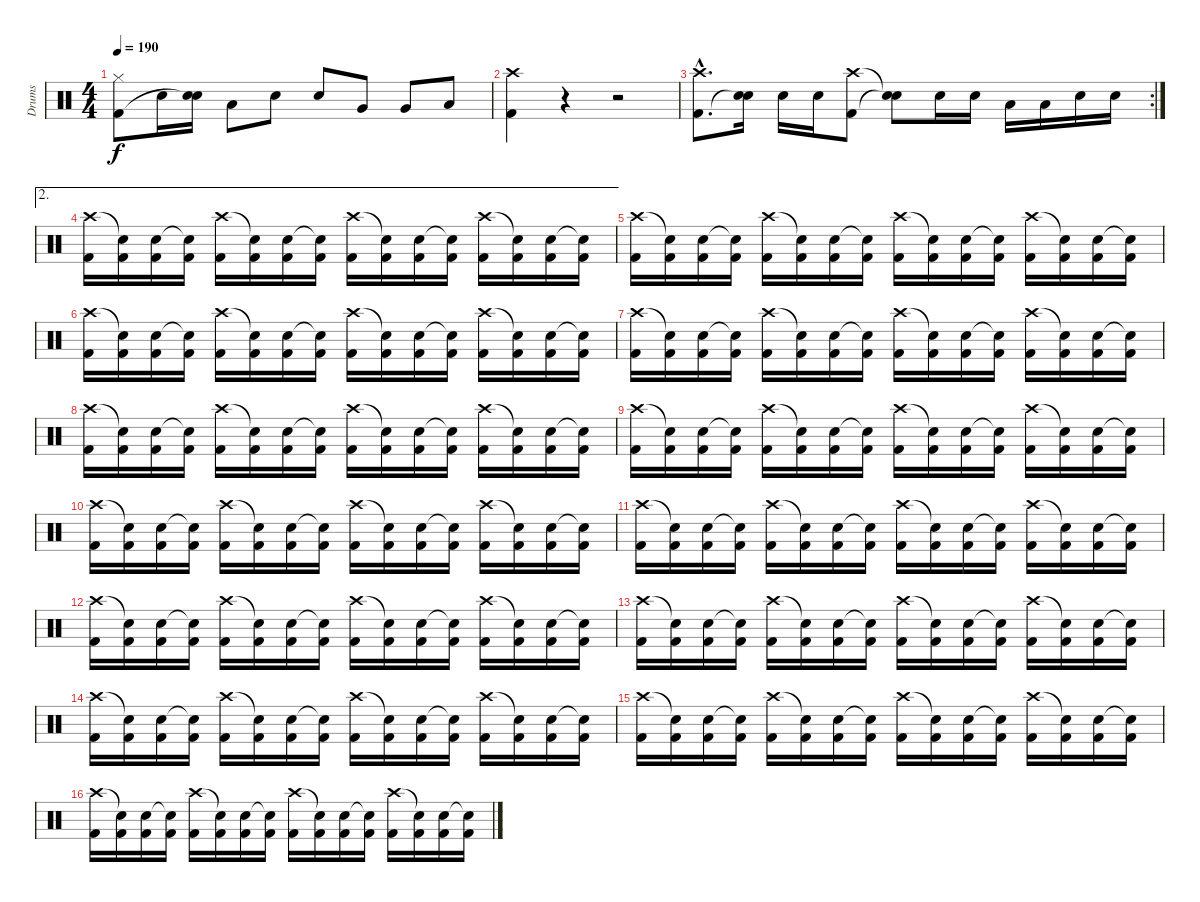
\track ("Drums" "Drums") {instrument percussion}
\staff {score}
\articulation defaults
\ts (4 4)
\tempo 190
\clef neutral
\ks c
("Hi-Hat (closed)" "Kick (hit) 2").8{dy f} "Snare (hit) 2".16 ("Snare (hit) 2" "Snare (hit)"{t}).16 "Low Tom (hit)".8 "Snare (hit) 2".8 "Snare (hit) 2".8 "Very Low Tom (hit)".8 "Very Low Tom (hit)".8 "Low Floor Tom (hit)".8 |
("Crash high (hit)" "Kick (hit) 2").4 r.4 r.2 |
\rc 2
("Crash high (hit)"{hac} "Kick (hit) 2"{hac}).8{d} ("Snare (hit) 2" "Snare (hit)"{t}).16 "Snare (hit) 2".16 "Snare (hit) 2".16 ("Crash high (hit)" "Kick (hit) 2").8 ("Snare (hit)"{t} "Snare (hit)"{t}).8 "Snare (hit) 2".16 "Snare (hit) 2".16 "Low Tom (hit)".16 "Low Tom (hit)".16 "Snare (hit) 2".16 "Snare (hit) 2".16 |
\ae 2
("Crash high (hit)" "Kick (hit) 2").16 ("Snare (hit)"{t} "Kick (hit) 2").16 ("Snare (hit) 2" "Kick (hit) 2").16 ("Snare (hit)"{t} "Kick (hit) 2").16 ("Crash high (hit)" "Kick (hit) 2").16 ("Snare (hit)"{t} "Kick (hit) 2").16 ("Snare (hit) 2" "Kick (hit) 2").16 ("Snare (hit)"{t} "Kick (hit) 2").16 ("Crash high (hit)" "Kick (hit) 2").16 ("Snare (hit)"{t} "Kick (hit) 2").16 ("Snare (hit) 2" "Kick (hit) 2").16 ("Snare (hit)"{t} "Kick (hit) 2").16 ("Crash high (hit)" "Kick (hit) 2").16 ("Snare (hit)"{t} "Kick (hit) 2").16 ("Snare (hit) 2" "Kick (hit) 2").16 ("Snare (hit)"{t} "Kick (hit) 2").16 |
("Crash high (hit)" "Kick (hit) 2").16 ("Snare (hit)"{t} "Kick (hit) 2").16 ("Snare (hit) 2" "Kick (hit) 2").16 ("Snare (hit)"{t} "Kick (hit) 2").16 ("Crash high (hit)" "Kick (hit) 2").16 ("Snare (hit)"{t} "Kick (hit) 2").16 ("Snare (hit) 2" "Kick (hit) 2").16 ("Snare (hit)"{t} "Kick (hit) 2").16 ("Crash high (hit)" "Kick (hit) 2").16 ("Snare (hit)"{t} "Kick (hit) 2").16 ("Snare (hit) 2" "Kick (hit) 2").16 ("Snare (hit)"{t} "Kick (hit) 2").16 ("Crash high (hit)" "Kick (hit) 2").16 ("Snare (hit)"{t} "Kick (hit) 2").16 ("Snare (hit) 2" "Kick (hit) 2").16 ("Snare (hit)"{t} "Kick (hit) 2").16 |
("Crash high (hit)" "Kick (hit) 2").16 ("Snare (hit)"{t} "Kick (hit) 2").16 ("Snare (hit) 2" "Kick (hit) 2").16 ("Snare (hit)"{t} "Kick (hit) 2").16 ("Crash high (hit)" "Kick (hit) 2").16 ("Snare (hit)"{t} "Kick (hit) 2").16 ("Snare (hit) 2" "Kick (hit) 2").16 ("Snare (hit)"{t} "Kick (hit) 2").16 ("Crash high (hit)" "Kick (hit) 2").16 ("Snare (hit)"{t} "Kick (hit) 2").16 ("Snare (hit) 2" "Kick (hit) 2").16 ("Snare (hit)"{t} "Kick (hit) 2").16 ("Crash high (hit)" "Kick (hit) 2").16 ("Snare (hit)"{t} "Kick (hit) 2").16 ("Snare (hit) 2" "Kick (hit) 2").16 ("Snare (hit)"{t} "Kick (hit) 2").16 |
("Crash high (hit)" "Kick (hit) 2").16 ("Snare (hit)"{t} "Kick (hit) 2").16 ("Snare (hit) 2" "Kick (hit) 2").16 ("Snare (hit)"{t} "Kick (hit) 2").16 ("Crash high (hit)" "Kick (hit) 2").16 ("Snare (hit)"{t} "Kick (hit) 2").16 ("Snare (hit) 2" "Kick (hit) 2").16 ("Snare (hit)"{t} "Kick (hit) 2").16 ("Crash high (hit)" "Kick (hit) 2").16 ("Snare (hit)"{t} "Kick (hit) 2").16 ("Snare (hit) 2" "Kick (hit) 2").16 ("Snare (hit)"{t} "Kick (hit) 2").16 ("Crash high (hit)" "Kick (hit) 2").16 ("Snare (hit)"{t} "Kick (hit) 2").16 ("Snare (hit) 2" "Kick (hit) 2").16 ("Snare (hit)"{t} "Kick (hit) 2").16 |
("Crash high (hit)" "Kick (hit) 2").16 ("Snare (hit)"{t} "Kick (hit) 2").16 ("Snare (hit) 2" "Kick (hit) 2").16 ("Snare (hit)"{t} "Kick (hit) 2").16 ("Crash high (hit)" "Kick (hit) 2").16 ("Snare (hit)"{t} "Kick (hit) 2").16 ("Snare (hit) 2" "Kick (hit) 2").16 ("Snare (hit)"{t} "Kick (hit) 2").16 ("Crash high (hit)" "Kick (hit) 2").16 ("Snare (hit)"{t} "Kick (hit) 2").16 ("Snare (hit) 2" "Kick (hit) 2").16 ("Snare (hit)"{t} "Kick (hit) 2").16 ("Crash high (hit)" "Kick (hit) 2").16 ("Snare (hit)"{t} "Kick (hit) 2").16 ("Snare (hit) 2" "Kick (hit) 2").16 ("Snare (hit)"{t} "Kick (hit) 2").16 |
("Crash high (hit)" "Kick (hit) 2").16 ("Snare (hit)"{t} "Kick (hit) 2").16 ("Snare (hit) 2" "Kick (hit) 2").16 ("Snare (hit)"{t} "Kick (hit) 2").16 ("Crash high (hit)" "Kick (hit) 2").16 ("Snare (hit)"{t} "Kick (hit) 2").16 ("Snare (hit) 2" "Kick (hit) 2").16 ("Snare (hit)"{t} "Kick (hit) 2").16 ("Crash high (hit)" "Kick (hit) 2").16 ("Snare (hit)"{t} "Kick (hit) 2").16 ("Snare (hit) 2" "Kick (hit) 2").16 ("Snare (hit)"{t} "Kick (hit) 2").16 ("Crash high (hit)" "Kick (hit) 2").16 ("Snare (hit)"{t} "Kick (hit) 2").16 ("Snare (hit) 2" "Kick (hit) 2").16 ("Snare (hit)"{t} "Kick (hit) 2").16 |
("Crash high (hit)" "Kick (hit) 2").16 ("Snare (hit)"{t} "Kick (hit) 2").16 ("Snare (hit) 2" "Kick (hit) 2").16 ("Snare (hit)"{t} "Kick (hit) 2").16 ("Crash high (hit)" "Kick (hit) 2").16 ("Snare (hit)"{t} "Kick (hit) 2").16 ("Snare (hit) 2" "Kick (hit) 2").16 ("Snare (hit)"{t} "Kick (hit) 2").16 ("Crash high (hit)" "Kick (hit) 2").16 ("Snare (hit)"{t} "Kick (hit) 2").16 ("Snare (hit) 2" "Kick (hit) 2").16 ("Snare (hit)"{t} "Kick (hit) 2").16 ("Crash high (hit)" "Kick (hit) 2").16 ("Snare (hit)"{t} "Kick (hit) 2").16 ("Snare (hit) 2" "Kick (hit) 2").16 ("Snare (hit)"{t} "Kick (hit) 2").16 |
("Crash high (hit)" "Kick (hit) 2").16 ("Snare (hit)"{t} "Kick (hit) 2").16 ("Snare (hit) 2" "Kick (hit) 2").16 ("Snare (hit)"{t} "Kick (hit) 2").16 ("Crash high (hit)" "Kick (hit) 2").16 ("Snare (hit)"{t} "Kick (hit) 2").16 ("Snare (hit) 2" "Kick (hit) 2").16 ("Snare (hit)"{t} "Kick (hit) 2").16 ("Crash high (hit)" "Kick (hit) 2").16 ("Snare (hit)"{t} "Kick (hit) 2").16 ("Snare (hit) 2" "Kick (hit) 2").16 ("Snare (hit)"{t} "Kick (hit) 2").16 ("Crash high (hit)" "Kick (hit) 2").16 ("Snare (hit)"{t} "Kick (hit) 2").16 ("Snare (hit) 2" "Kick (hit) 2").16 ("Snare (hit)"{t} "Kick (hit) 2").16 |
("Crash high (hit)" "Kick (hit) 2").16 ("Snare (hit)"{t} "Kick (hit) 2").16 ("Snare (hit) 2" "Kick (hit) 2").16 ("Snare (hit)"{t} "Kick (hit) 2").16 ("Crash high (hit)" "Kick (hit) 2").16 ("Snare (hit)"{t} "Kick (hit) 2").16 ("Snare (hit) 2" "Kick (hit) 2").16 ("Snare (hit)"{t} "Kick (hit) 2").16 ("Crash high (hit)" "Kick (hit) 2").16 ("Snare (hit)"{t} "Kick (hit) 2").16 ("Snare (hit) 2" "Kick (hit) 2").16 ("Snare (hit)"{t} "Kick (hit) 2").16 ("Crash high (hit)" "Kick (hit) 2").16 ("Snare (hit)"{t} "Kick (hit) 2").16 ("Snare (hit) 2" "Kick (hit) 2").16 ("Snare (hit)"{t} "Kick (hit) 2").16 |
("Crash high (hit)" "Kick (hit) 2").16 ("Snare (hit)"{t} "Kick (hit) 2").16 ("Snare (hit) 2" "Kick (hit) 2").16 ("Snare (hit)"{t} "Kick (hit) 2").16 ("Crash high (hit)" "Kick (hit) 2").16 ("Snare (hit)"{t} "Kick (hit) 2").16 ("Snare (hit) 2" "Kick (hit) 2").16 ("Snare (hit)"{t} "Kick (hit) 2").16 ("Crash high (hit)" "Kick (hit) 2").16 ("Snare (hit)"{t} "Kick (hit) 2").16 ("Snare (hit) 2" "Kick (hit) 2").16 ("Snare (hit)"{t} "Kick (hit) 2").16 ("Crash high (hit)" "Kick (hit) 2").16 ("Snare (hit)"{t} "Kick (hit) 2").16 ("Snare (hit) 2" "Kick (hit) 2").16 ("Snare (hit)"{t} "Kick (hit) 2").16 |
("Crash high (hit)" "Kick (hit) 2").16 ("Snare (hit)"{t} "Kick (hit) 2").16 ("Snare (hit) 2" "Kick (hit) 2").16 ("Snare (hit)"{t} "Kick (hit) 2").16 ("Crash high (hit)" "Kick (hit) 2").16 ("Snare (hit)"{t} "Kick (hit) 2").16 ("Snare (hit) 2" "Kick (hit) 2").16 ("Snare (hit)"{t} "Kick (hit) 2").16 ("Crash high (hit)" "Kick (hit) 2").16 ("Snare (hit)"{t} "Kick (hit) 2").16 ("Snare (hit) 2" "Kick (hit) 2").16 ("Snare (hit)"{t} "Kick (hit) 2").16 ("Crash high (hit)" "Kick (hit) 2").16 ("Snare (hit)"{t} "Kick (hit) 2").16 ("Snare (hit) 2" "Kick (hit) 2").16 ("Snare (hit)"{t} "Kick (hit) 2").16 |
("Crash high (hit)" "Kick (hit) 2").16 ("Snare (hit)"{t} "Kick (hit) 2").16 ("Snare (hit) 2" "Kick (hit) 2").16 ("Snare (hit)"{t} "Kick (hit) 2").16 ("Crash high (hit)" "Kick (hit) 2").16 ("Snare (hit)"{t} "Kick (hit) 2").16 ("Snare (hit) 2" "Kick (hit) 2").16 ("Snare (hit)"{t} "Kick (hit) 2").16 ("Crash high (hit)" "Kick (hit) 2").16 ("Snare (hit)"{t} "Kick (hit) 2").16 ("Snare (hit) 2" "Kick (hit) 2").16 ("Snare (hit)"{t} "Kick (hit) 2").16 ("Crash high (hit)" "Kick (hit) 2").16 ("Snare (hit)"{t} "Kick (hit) 2").16 ("Snare (hit) 2" "Kick (hit) 2").16 ("Snare (hit)"{t} "Kick (hit) 2").16 |
("Crash high (hit)" "Kick (hit) 2").16 ("Snare (hit)"{t} "Kick (hit) 2").16 ("Snare (hit) 2" "Kick (hit) 2").16 ("Snare (hit)"{t} "Kick (hit) 2").16 ("Crash high (hit)" "Kick (hit) 2").16 ("Snare (hit)"{t} "Kick (hit) 2").16 ("Snare (hit) 2" "Kick (hit) 2").16 ("Snare (hit)"{t} "Kick (hit) 2").16 ("Crash high (hit)" "Kick (hit) 2").16 ("Snare (hit)"{t} "Kick (hit) 2").16 ("Snare (hit) 2" "Kick (hit) 2").16 ("Snare (hit)"{t} "Kick (hit) 2").16 ("Crash high (hit)" "Kick (hit) 2").16 ("Snare (hit)"{t} "Kick (hit) 2").16 ("Snare (hit) 2" "Kick (hit) 2").16 ("Snare (hit)"{t} "Kick (hit) 2").16
